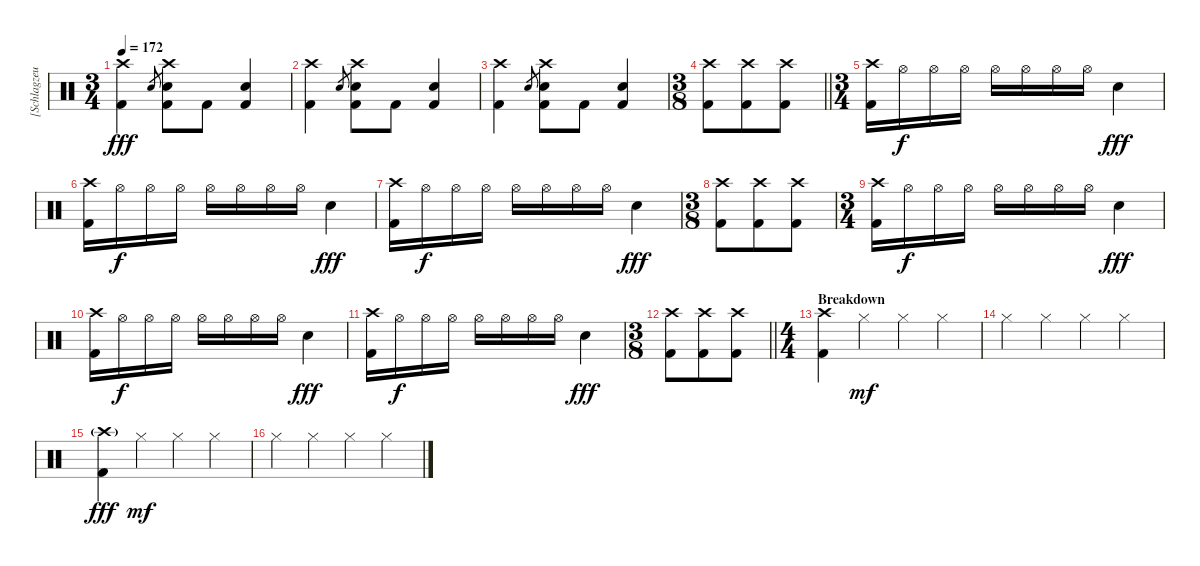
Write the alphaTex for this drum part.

\track ("[Schlagzeug]" "[Schlagzeu") {instrument percussion}
\staff {score}
\articulation defaults
\ts (3 4)
\tempo 172
\clef neutral
\ks c
("Crash high (hit)" "Kick (hit) 2").4{dy fff} "Electric Snare (hit)".8{gr} ("Crash high (hit)" "Electric Snare (hit)" "Kick (hit) 2").8 "Kick (hit) 2".8 ("Electric Snare (hit)" "Kick (hit) 2").4 |
("Crash high (hit)" "Kick (hit) 2").4 "Electric Snare (hit)".8{gr} ("Crash high (hit)" "Electric Snare (hit)" "Kick (hit) 2").8 "Kick (hit) 2".8 ("Electric Snare (hit)" "Kick (hit) 2").4 |
("Crash high (hit)" "Kick (hit) 2").4 "Electric Snare (hit)".8{gr} ("Crash high (hit)" "Electric Snare (hit)" "Kick (hit) 2").8 "Kick (hit) 2".8 ("Electric Snare (hit)" "Kick (hit) 2").4 |
\ts (3 8)
\barLineRight lightlight
("Crash high (hit)" "Kick (hit) 2").8 ("Crash high (hit)" "Kick (hit) 2").8 ("Crash high (hit)" "Kick (hit) 2").8 |
\ts (3 4)
("Kick (hit) 2" "Crash high (hit)").16 "Hi-Hat (open)".16{dy f} "Hi-Hat (open)".16 "Hi-Hat (open)".16 "Hi-Hat (open)".16 "Hi-Hat (open)".16 "Hi-Hat (open)".16 "Hi-Hat (open)".16 "Electric Snare (hit)".4{dy fff} |
("Kick (hit) 2" "Crash high (hit)").16 "Hi-Hat (open)".16{dy f} "Hi-Hat (open)".16 "Hi-Hat (open)".16 "Hi-Hat (open)".16 "Hi-Hat (open)".16 "Hi-Hat (open)".16 "Hi-Hat (open)".16 "Electric Snare (hit)".4{dy fff} |
("Kick (hit) 2" "Crash high (hit)").16 "Hi-Hat (open)".16{dy f} "Hi-Hat (open)".16 "Hi-Hat (open)".16 "Hi-Hat (open)".16 "Hi-Hat (open)".16 "Hi-Hat (open)".16 "Hi-Hat (open)".16 "Electric Snare (hit)".4{dy fff} |
\ts (3 8)
("Crash high (hit)" "Kick (hit) 2").8 ("Crash high (hit)" "Kick (hit) 2").8 ("Crash high (hit)" "Kick (hit) 2").8 |
\ts (3 4)
("Kick (hit) 2" "Crash high (hit)").16 "Hi-Hat (open)".16{dy f} "Hi-Hat (open)".16 "Hi-Hat (open)".16 "Hi-Hat (open)".16 "Hi-Hat (open)".16 "Hi-Hat (open)".16 "Hi-Hat (open)".16 "Electric Snare (hit)".4{dy fff} |
("Kick (hit) 2" "Crash high (hit)").16 "Hi-Hat (open)".16{dy f} "Hi-Hat (open)".16 "Hi-Hat (open)".16 "Hi-Hat (open)".16 "Hi-Hat (open)".16 "Hi-Hat (open)".16 "Hi-Hat (open)".16 "Electric Snare (hit)".4{dy fff} |
("Kick (hit) 2" "Crash high (hit)").16 "Hi-Hat (open)".16{dy f} "Hi-Hat (open)".16 "Hi-Hat (open)".16 "Hi-Hat (open)".16 "Hi-Hat (open)".16 "Hi-Hat (open)".16 "Hi-Hat (open)".16 "Electric Snare (hit)".4{dy fff} |
\ts (3 8)
\barLineRight lightlight
("Crash high (hit)" "Kick (hit) 2").8 ("Crash high (hit)" "Kick (hit) 2").8 ("Crash high (hit)" "Kick (hit) 2").8 |
\ts (4 4)
\section ("" "Breakdown")
("Crash high (hit)" "Kick (hit) 2").4 "Hi-Hat (closed)".4{dy mf} "Hi-Hat (closed)".4 "Hi-Hat (closed)".4 |
"Hi-Hat (closed)".4 "Hi-Hat (closed)".4 "Hi-Hat (closed)".4 "Hi-Hat (closed)".4 |
("Crash high (hit)"{g} "Kick (hit) 2").4{dy fff} "Hi-Hat (closed)".4{dy mf} "Hi-Hat (closed)".4 "Hi-Hat (closed)".4 |
"Hi-Hat (closed)".4 "Hi-Hat (closed)".4 "Hi-Hat (closed)".4 "Hi-Hat (closed)".4
